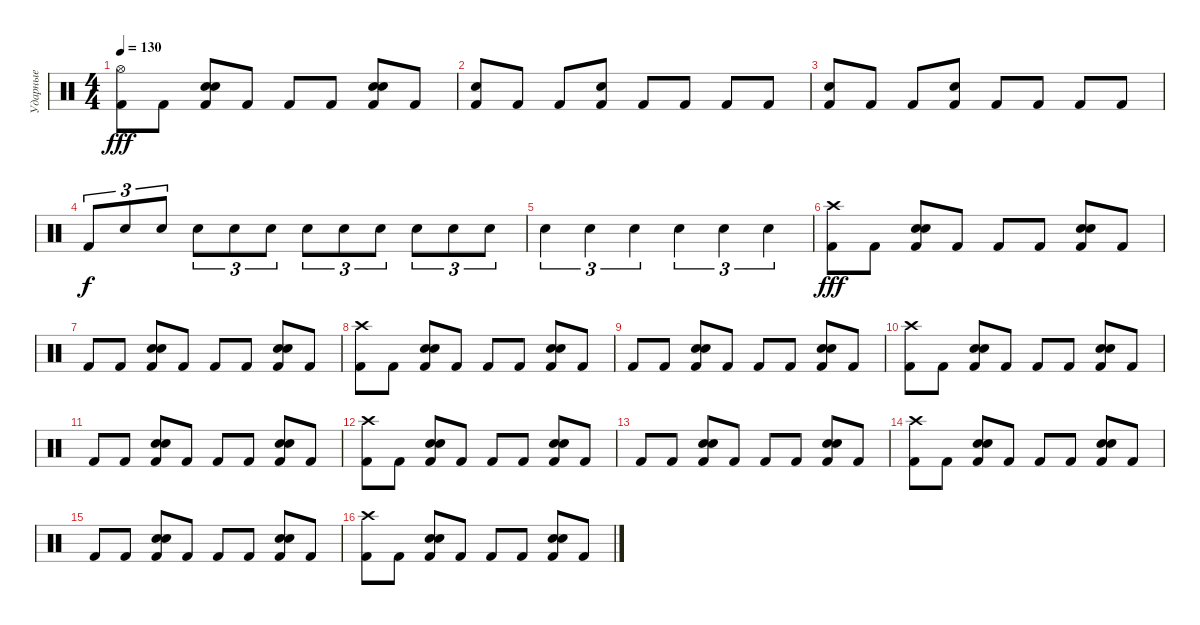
\track ("Ударные" "Ударные") {instrument percussion}
\staff {score}
\articulation defaults
\ts (4 4)
\tempo 130
\clef neutral
\ks c
("Hi-Hat (open)" "Kick (hit) 2").8{dy fff} "Kick (hit) 2".8 ("Snare (hit) 2" "Snare (hit) 2" "Kick (hit) 2").8 "Kick (hit) 2".8 "Kick (hit) 2".8 "Kick (hit) 2".8 ("Snare (hit) 2" "Snare (hit) 2" "Kick (hit) 2").8 "Kick (hit) 2".8 |
("Snare (hit) 2" "Kick (hit) 2").8 "Kick (hit) 2".8 "Kick (hit) 2".8 ("Snare (hit) 2" "Kick (hit) 2").8 "Kick (hit) 2".8 "Kick (hit) 2".8 "Kick (hit) 2".8 "Kick (hit) 2".8 |
("Snare (hit) 2" "Kick (hit) 2").8 "Kick (hit) 2".8 "Kick (hit) 2".8 ("Snare (hit) 2" "Kick (hit) 2").8 "Kick (hit) 2".8 "Kick (hit) 2".8 "Kick (hit) 2".8 "Kick (hit) 2".8 |
"Kick (hit) 2".8{tu (3 2) dy f} "Snare (hit) 2".8{tu (3 2)} "Snare (hit) 2".8{tu (3 2)} "Snare (hit) 2".8{tu (3 2)} "Snare (hit) 2".8{tu (3 2)} "Snare (hit) 2".8{tu (3 2)} "Snare (hit) 2".8{tu (3 2)} "Snare (hit) 2".8{tu (3 2)} "Snare (hit) 2".8{tu (3 2)} "Snare (hit) 2".8{tu (3 2)} "Snare (hit) 2".8{tu (3 2)} "Snare (hit) 2".8{tu (3 2)} |
"Snare (hit) 2".4{tu (3 2)} "Snare (hit) 2".4{tu (3 2)} "Snare (hit) 2".4{tu (3 2)} "Snare (hit) 2".4{tu (3 2)} "Snare (hit) 2".4{tu (3 2)} "Snare (hit) 2".4{tu (3 2)} |
("Crash high (hit)" "Kick (hit) 2").8{dy fff} "Kick (hit) 2".8 ("Snare (hit) 2" "Snare (hit) 2" "Kick (hit) 2").8 "Kick (hit) 2".8 "Kick (hit) 2".8 "Kick (hit) 2".8 ("Snare (hit) 2" "Snare (hit) 2" "Kick (hit) 2").8 "Kick (hit) 2".8 |
"Kick (hit) 2".8 "Kick (hit) 2".8 ("Snare (hit) 2" "Snare (hit) 2" "Kick (hit) 2").8 "Kick (hit) 2".8 "Kick (hit) 2".8 "Kick (hit) 2".8 ("Snare (hit) 2" "Snare (hit) 2" "Kick (hit) 2").8 "Kick (hit) 2".8 |
("Crash high (hit)" "Kick (hit) 2").8 "Kick (hit) 2".8 ("Snare (hit) 2" "Snare (hit) 2" "Kick (hit) 2").8 "Kick (hit) 2".8 "Kick (hit) 2".8 "Kick (hit) 2".8 ("Snare (hit) 2" "Snare (hit) 2" "Kick (hit) 2").8 "Kick (hit) 2".8 |
"Kick (hit) 2".8 "Kick (hit) 2".8 ("Snare (hit) 2" "Snare (hit) 2" "Kick (hit) 2").8 "Kick (hit) 2".8 "Kick (hit) 2".8 "Kick (hit) 2".8 ("Snare (hit) 2" "Snare (hit) 2" "Kick (hit) 2").8 "Kick (hit) 2".8 |
("Crash high (hit)" "Kick (hit) 2").8 "Kick (hit) 2".8 ("Snare (hit) 2" "Snare (hit) 2" "Kick (hit) 2").8 "Kick (hit) 2".8 "Kick (hit) 2".8 "Kick (hit) 2".8 ("Snare (hit) 2" "Snare (hit) 2" "Kick (hit) 2").8 "Kick (hit) 2".8 |
"Kick (hit) 2".8 "Kick (hit) 2".8 ("Snare (hit) 2" "Snare (hit) 2" "Kick (hit) 2").8 "Kick (hit) 2".8 "Kick (hit) 2".8 "Kick (hit) 2".8 ("Snare (hit) 2" "Snare (hit) 2" "Kick (hit) 2").8 "Kick (hit) 2".8 |
("Crash high (hit)" "Kick (hit) 2").8 "Kick (hit) 2".8 ("Snare (hit) 2" "Snare (hit) 2" "Kick (hit) 2").8 "Kick (hit) 2".8 "Kick (hit) 2".8 "Kick (hit) 2".8 ("Snare (hit) 2" "Snare (hit) 2" "Kick (hit) 2").8 "Kick (hit) 2".8 |
"Kick (hit) 2".8 "Kick (hit) 2".8 ("Snare (hit) 2" "Snare (hit) 2" "Kick (hit) 2").8 "Kick (hit) 2".8 "Kick (hit) 2".8 "Kick (hit) 2".8 ("Snare (hit) 2" "Snare (hit) 2" "Kick (hit) 2").8 "Kick (hit) 2".8 |
("Crash high (hit)" "Kick (hit) 2").8 "Kick (hit) 2".8 ("Snare (hit) 2" "Snare (hit) 2" "Kick (hit) 2").8 "Kick (hit) 2".8 "Kick (hit) 2".8 "Kick (hit) 2".8 ("Snare (hit) 2" "Snare (hit) 2" "Kick (hit) 2").8 "Kick (hit) 2".8 |
"Kick (hit) 2".8 "Kick (hit) 2".8 ("Snare (hit) 2" "Snare (hit) 2" "Kick (hit) 2").8 "Kick (hit) 2".8 "Kick (hit) 2".8 "Kick (hit) 2".8 ("Snare (hit) 2" "Snare (hit) 2" "Kick (hit) 2").8 "Kick (hit) 2".8 |
("Crash high (hit)" "Kick (hit) 2").8 "Kick (hit) 2".8 ("Snare (hit) 2" "Snare (hit) 2" "Kick (hit) 2").8 "Kick (hit) 2".8 "Kick (hit) 2".8 "Kick (hit) 2".8 ("Snare (hit) 2" "Snare (hit) 2" "Kick (hit) 2").8 "Kick (hit) 2".8
